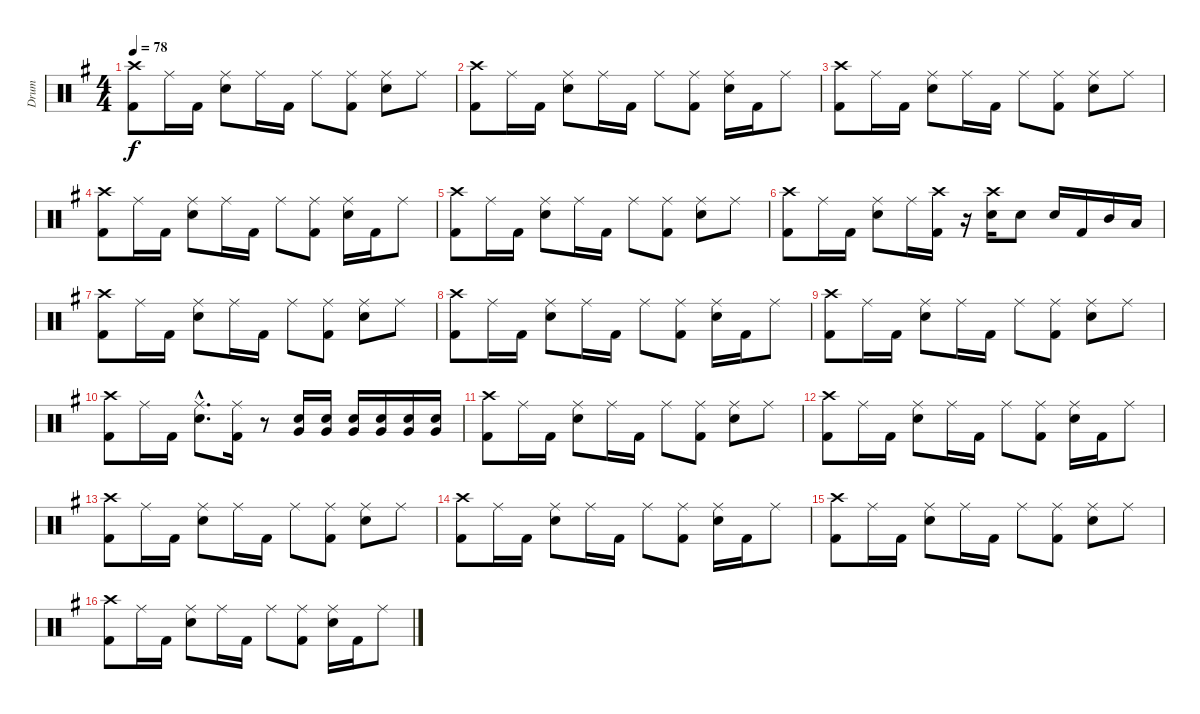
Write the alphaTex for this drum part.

\track ("Drum" "Drum") {instrument percussion}
\staff {score}
\articulation defaults
\ts (4 4)
\tempo 78
\clef neutral
\ks g
("Crash high (hit)" "Kick (hit) 2").8{dy f} "Ride (middle)".16 "Kick (hit) 2".16 ("Ride (middle)" "Snare (hit) 2").8 "Ride (middle)".16 "Kick (hit) 2".16 "Ride (middle)".8 ("Ride (middle)" "Kick (hit) 2").8 ("Ride (middle)" "Snare (hit) 2").8 "Ride (middle)".8 |
("Crash high (hit)" "Kick (hit) 2").8 "Ride (middle)".16 "Kick (hit) 2".16 ("Ride (middle)" "Snare (hit) 2").8 "Ride (middle)".16 "Kick (hit) 2".16 "Ride (middle)".8 ("Ride (middle)" "Kick (hit) 2").8 ("Ride (middle)" "Snare (hit) 2").16 "Kick (hit) 2".16 "Ride (middle)".8 |
("Crash high (hit)" "Kick (hit) 2").8 "Ride (middle)".16 "Kick (hit) 2".16 ("Ride (middle)" "Snare (hit) 2").8 "Ride (middle)".16 "Kick (hit) 2".16 "Ride (middle)".8 ("Ride (middle)" "Kick (hit) 2").8 ("Ride (middle)" "Snare (hit) 2").8 "Ride (middle)".8 |
("Crash high (hit)" "Kick (hit) 2").8 "Ride (middle)".16 "Kick (hit) 2".16 ("Ride (middle)" "Snare (hit) 2").8 "Ride (middle)".16 "Kick (hit) 2".16 "Ride (middle)".8 ("Ride (middle)" "Kick (hit) 2").8 ("Ride (middle)" "Snare (hit) 2").16 "Kick (hit) 2".16 "Ride (middle)".8 |
("Crash high (hit)" "Kick (hit) 2").8 "Ride (middle)".16 "Kick (hit) 2".16 ("Ride (middle)" "Snare (hit) 2").8 "Ride (middle)".16 "Kick (hit) 2".16 "Ride (middle)".8 ("Ride (middle)" "Kick (hit) 2").8 ("Ride (middle)" "Snare (hit) 2").8 "Ride (middle)".8 |
("Crash high (hit)" "Kick (hit) 2").8 "Ride (middle)".16 "Kick (hit) 2".16 ("Ride (middle)" "Snare (hit) 2").8 "Ride (middle)".16 ("Crash high (hit)" "Kick (hit) 2").16 r.16 ("Crash high (hit)" "Snare (hit) 2").16 "Snare (hit) 2".8 "Snare (hit) 2".16 "Kick (hit) 2".16 "Mid Tom (hit)".16 "Low Tom (hit)".16 |
("Crash high (hit)" "Kick (hit) 2").8 "Ride (middle)".16 "Kick (hit) 2".16 ("Ride (middle)" "Snare (hit) 2").8 "Ride (middle)".16 "Kick (hit) 2".16 "Ride (middle)".8 ("Ride (middle)" "Kick (hit) 2").8 ("Ride (middle)" "Snare (hit) 2").8 "Ride (middle)".8 |
("Crash high (hit)" "Kick (hit) 2").8 "Ride (middle)".16 "Kick (hit) 2".16 ("Ride (middle)" "Snare (hit) 2").8 "Ride (middle)".16 "Kick (hit) 2".16 "Ride (middle)".8 ("Ride (middle)" "Kick (hit) 2").8 ("Ride (middle)" "Snare (hit) 2").16 "Kick (hit) 2".16 "Ride (middle)".8 |
("Crash high (hit)" "Kick (hit) 2").8 "Ride (middle)".16 "Kick (hit) 2".16 ("Ride (middle)" "Snare (hit) 2").8 "Ride (middle)".16 "Kick (hit) 2".16 "Ride (middle)".8 ("Ride (middle)" "Kick (hit) 2").8 ("Ride (middle)" "Snare (hit) 2").8 "Ride (middle)".8 |
("Crash high (hit)" "Kick (hit) 2").8 "Ride (middle)".16 "Kick (hit) 2".16 ("Ride (middle)"{hac} "Snare (hit) 2"{hac}).8{d} ("Ride (middle)" "Kick (hit) 2").16 r.8 ("Very Low Tom (hit)" "Snare (hit) 2").16 ("Very Low Tom (hit)" "Snare (hit) 2").16 ("Very Low Tom (hit)" "Snare (hit) 2").16 ("Very Low Tom (hit)" "Snare (hit) 2").16 ("Very Low Tom (hit)" "Snare (hit) 2").16 ("Very Low Tom (hit)" "Snare (hit) 2").16 |
("Crash high (hit)" "Kick (hit) 2").8 "Ride (middle)".16 "Kick (hit) 2".16 ("Ride (middle)" "Snare (hit) 2").8 "Ride (middle)".16 "Kick (hit) 2".16 "Ride (middle)".8 ("Ride (middle)" "Kick (hit) 2").8 ("Ride (middle)" "Snare (hit) 2").8 "Ride (middle)".8 |
("Crash high (hit)" "Kick (hit) 2").8 "Ride (middle)".16 "Kick (hit) 2".16 ("Ride (middle)" "Snare (hit) 2").8 "Ride (middle)".16 "Kick (hit) 2".16 "Ride (middle)".8 ("Ride (middle)" "Kick (hit) 2").8 ("Ride (middle)" "Snare (hit) 2").16 "Kick (hit) 2".16 "Ride (middle)".8 |
("Crash high (hit)" "Kick (hit) 2").8 "Ride (middle)".16 "Kick (hit) 2".16 ("Ride (middle)" "Snare (hit) 2").8 "Ride (middle)".16 "Kick (hit) 2".16 "Ride (middle)".8 ("Ride (middle)" "Kick (hit) 2").8 ("Ride (middle)" "Snare (hit) 2").8 "Ride (middle)".8 |
("Crash high (hit)" "Kick (hit) 2").8 "Ride (middle)".16 "Kick (hit) 2".16 ("Ride (middle)" "Snare (hit) 2").8 "Ride (middle)".16 "Kick (hit) 2".16 "Ride (middle)".8 ("Ride (middle)" "Kick (hit) 2").8 ("Ride (middle)" "Snare (hit) 2").16 "Kick (hit) 2".16 "Ride (middle)".8 |
("Crash high (hit)" "Kick (hit) 2").8 "Ride (middle)".16 "Kick (hit) 2".16 ("Ride (middle)" "Snare (hit) 2").8 "Ride (middle)".16 "Kick (hit) 2".16 "Ride (middle)".8 ("Ride (middle)" "Kick (hit) 2").8 ("Ride (middle)" "Snare (hit) 2").8 "Ride (middle)".8 |
("Crash high (hit)" "Kick (hit) 2").8 "Ride (middle)".16 "Kick (hit) 2".16 ("Ride (middle)" "Snare (hit) 2").8 "Ride (middle)".16 "Kick (hit) 2".16 "Ride (middle)".8 ("Ride (middle)" "Kick (hit) 2").8 ("Ride (middle)" "Snare (hit) 2").16 "Kick (hit) 2".16 "Ride (middle)".8
